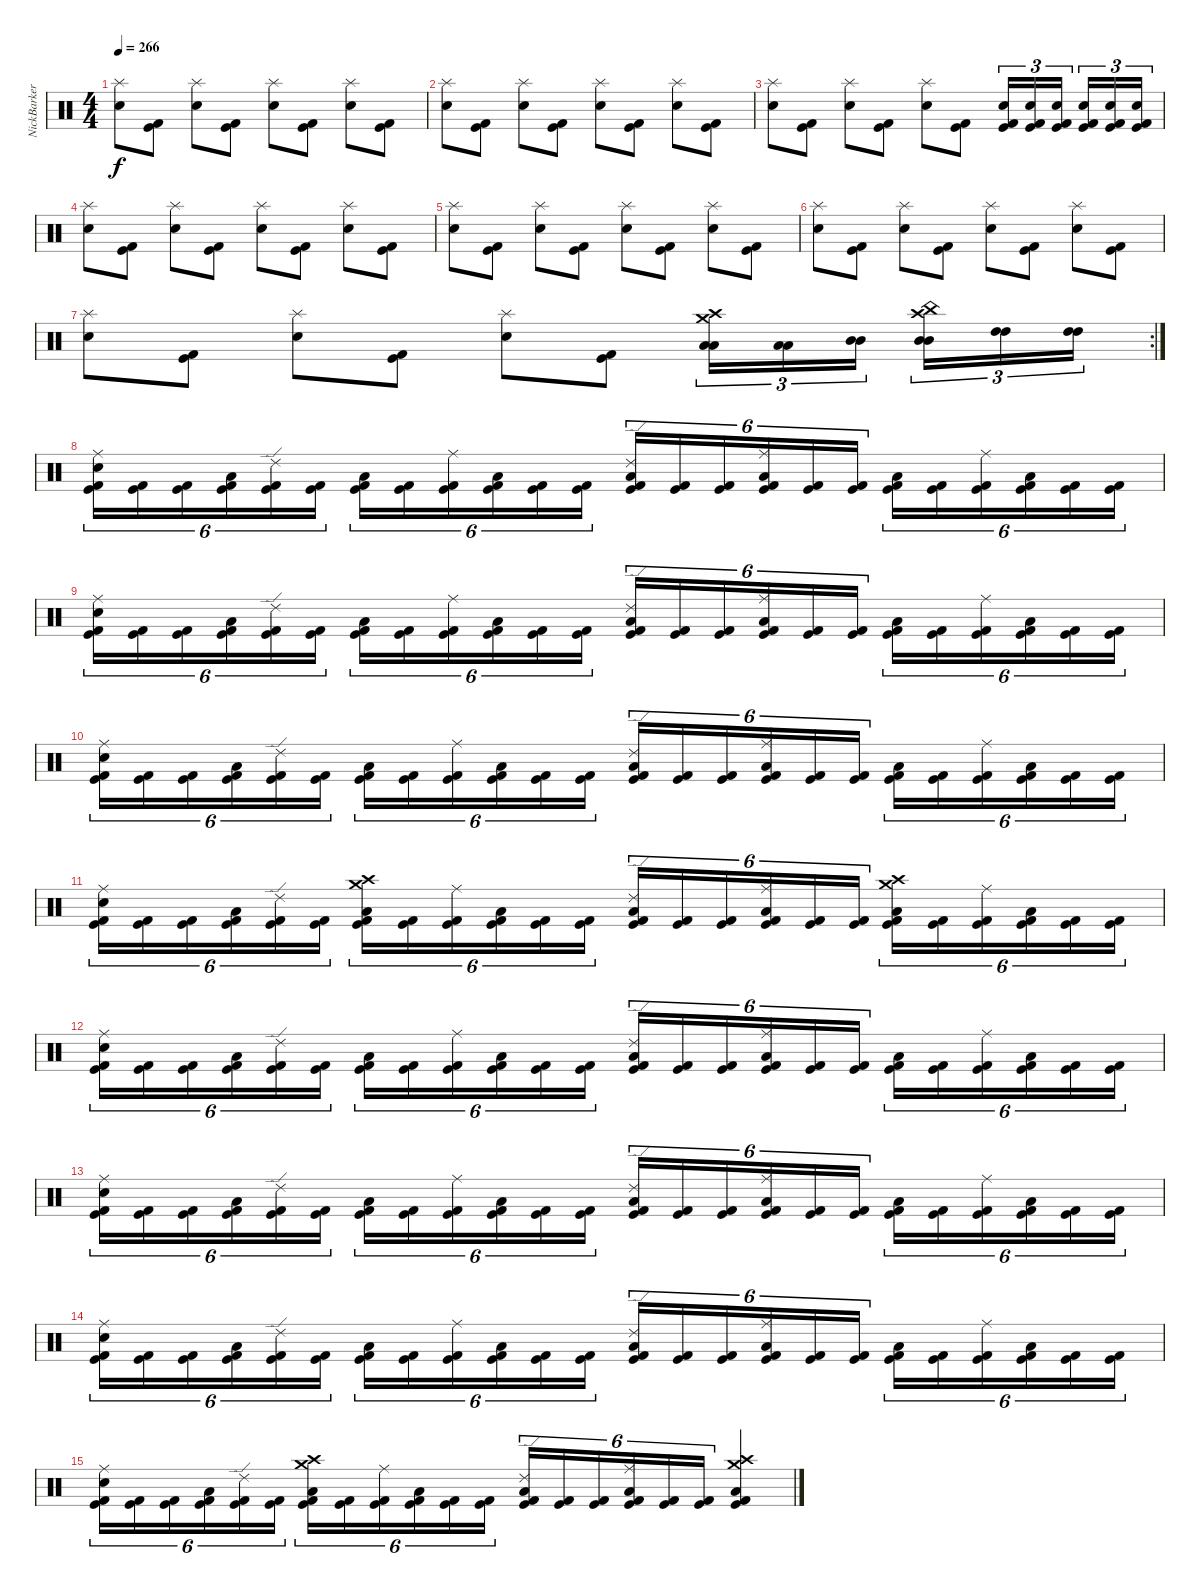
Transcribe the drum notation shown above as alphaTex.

\track ("NickBarker " "NickBarker") {instrument percussion}
\staff {score}
\articulation defaults
\ts (4 4)
\tempo 266
\clef neutral
\ks c
("Splash (hit)" "Electric Snare (hit)").8{dy f} ("Kick (hit)" "Kick (hit) 2").8 ("Splash (hit)" "Electric Snare (hit)").8 ("Kick (hit)" "Kick (hit) 2").8 ("Splash (hit)" "Electric Snare (hit)").8 ("Kick (hit)" "Kick (hit) 2").8 ("Splash (hit)" "Electric Snare (hit)").8 ("Kick (hit)" "Kick (hit) 2").8 |
("Splash (hit)" "Electric Snare (hit)").8 ("Kick (hit)" "Kick (hit) 2").8 ("Splash (hit)" "Electric Snare (hit)").8 ("Kick (hit)" "Kick (hit) 2").8 ("Splash (hit)" "Electric Snare (hit)").8 ("Kick (hit)" "Kick (hit) 2").8 ("Splash (hit)" "Electric Snare (hit)").8 ("Kick (hit)" "Kick (hit) 2").8 |
("Splash (hit)" "Electric Snare (hit)").8 ("Kick (hit)" "Kick (hit) 2").8 ("Splash (hit)" "Electric Snare (hit)").8 ("Kick (hit)" "Kick (hit) 2").8 ("Splash (hit)" "Electric Snare (hit)").8 ("Kick (hit)" "Kick (hit) 2").8 ("Kick (hit)" "Kick (hit) 2" "Electric Snare (hit)").16{tu (3 2)} ("Kick (hit)" "Kick (hit) 2" "Electric Snare (hit)").16{tu (3 2)} ("Kick (hit)" "Kick (hit) 2" "Electric Snare (hit)").16{tu (3 2)} ("Kick (hit)" "Kick (hit) 2" "Electric Snare (hit)").16{tu (3 2)} ("Kick (hit)" "Kick (hit) 2" "Electric Snare (hit)").16{tu (3 2)} ("Kick (hit)" "Kick (hit) 2" "Electric Snare (hit)").16{tu (3 2)} |
("Splash (hit)" "Electric Snare (hit)").8 ("Kick (hit)" "Kick (hit) 2").8 ("Splash (hit)" "Electric Snare (hit)").8 ("Kick (hit)" "Kick (hit) 2").8 ("Splash (hit)" "Electric Snare (hit)").8 ("Kick (hit)" "Kick (hit) 2").8 ("Splash (hit)" "Electric Snare (hit)").8 ("Kick (hit)" "Kick (hit) 2").8 |
("Splash (hit)" "Electric Snare (hit)").8 ("Kick (hit)" "Kick (hit) 2").8 ("Splash (hit)" "Electric Snare (hit)").8 ("Kick (hit)" "Kick (hit) 2").8 ("Splash (hit)" "Electric Snare (hit)").8 ("Kick (hit)" "Kick (hit) 2").8 ("Splash (hit)" "Electric Snare (hit)").8 ("Kick (hit)" "Kick (hit) 2").8 |
("Splash (hit)" "Electric Snare (hit)").8 ("Kick (hit)" "Kick (hit) 2").8 ("Splash (hit)" "Electric Snare (hit)").8 ("Kick (hit)" "Kick (hit) 2").8 ("Splash (hit)" "Electric Snare (hit)").8 ("Kick (hit)" "Kick (hit) 2").8 ("Splash (hit)" "Electric Snare (hit)").8 ("Kick (hit)" "Kick (hit) 2").8 |
\rc 2
("Splash (hit)" "Electric Snare (hit)").8 ("Kick (hit)" "Kick (hit) 2").8 ("Splash (hit)" "Electric Snare (hit)").8 ("Kick (hit)" "Kick (hit) 2").8 ("Splash (hit)" "Electric Snare (hit)").8 ("Kick (hit)" "Kick (hit) 2").8 ("Crash high (hit)" "Crash medium (hit)" "Low Tom (hit)" "Low Tom (hit)").16{tu (3 2)} ("Low Tom (hit)" "Low Tom (hit)").16{tu (3 2)} ("Mid Tom (hit)" "Mid Tom (hit)").16{tu (3 2)} ("Crash high (hit)" "China (hit)" "Mid Tom (hit)" "Mid Tom (hit)").16{tu (3 2)} ("High Tom (hit)" "High Tom (hit)").16{tu (3 2)} ("High Tom (hit)" "High Tom (hit)").16{tu (3 2)} |
("Kick (hit)" "Kick (hit) 2" "Ride (middle)" "Electric Snare (hit)").16{tu (6 4)} ("Kick (hit)" "Kick (hit) 2").16{tu (6 4)} ("Kick (hit)" "Kick (hit) 2").16{tu (6 4)} ("Kick (hit)" "Kick (hit) 2" "Low Floor Tom (hit)").16{tu (6 4)} ("Kick (hit)" "Kick (hit) 2" "Ride (edge) 2").16{tu (6 4)} ("Kick (hit)" "Kick (hit) 2").16{tu (6 4)} ("Kick (hit)" "Kick (hit) 2" "Low Floor Tom (hit)").16{tu (6 4)} ("Kick (hit)" "Kick (hit) 2").16{tu (6 4)} ("Kick (hit)" "Kick (hit) 2" "Ride (middle)").16{tu (6 4)} ("Kick (hit)" "Kick (hit) 2" "Low Floor Tom (hit)").16{tu (6 4)} ("Kick (hit)" "Kick (hit) 2").16{tu (6 4)} ("Kick (hit)" "Kick (hit) 2").16{tu (6 4)} ("Kick (hit)" "Kick (hit) 2" "Ride (edge) 2" "Low Floor Tom (hit)").16{tu (6 4)} ("Kick (hit)" "Kick (hit) 2").16{tu (6 4)} ("Kick (hit)" "Kick (hit) 2").16{tu (6 4)} ("Kick (hit)" "Kick (hit) 2" "Ride (middle)" "Low Floor Tom (hit)").16{tu (6 4)} ("Kick (hit)" "Kick (hit) 2").16{tu (6 4)} ("Kick (hit)" "Kick (hit) 2").16{tu (6 4)} ("Kick (hit)" "Kick (hit) 2" "Low Floor Tom (hit)").16{tu (6 4)} ("Kick (hit)" "Kick (hit) 2").16{tu (6 4)} ("Kick (hit)" "Kick (hit) 2" "Ride (middle)").16{tu (6 4)} ("Kick (hit)" "Kick (hit) 2" "Low Floor Tom (hit)").16{tu (6 4)} ("Kick (hit)" "Kick (hit) 2").16{tu (6 4)} ("Kick (hit)" "Kick (hit) 2").16{tu (6 4)} |
("Kick (hit)" "Kick (hit) 2" "Ride (middle)" "Electric Snare (hit)").16{tu (6 4)} ("Kick (hit)" "Kick (hit) 2").16{tu (6 4)} ("Kick (hit)" "Kick (hit) 2").16{tu (6 4)} ("Kick (hit)" "Kick (hit) 2" "Low Floor Tom (hit)").16{tu (6 4)} ("Kick (hit)" "Kick (hit) 2" "Ride (edge) 2").16{tu (6 4)} ("Kick (hit)" "Kick (hit) 2").16{tu (6 4)} ("Kick (hit)" "Kick (hit) 2" "Low Floor Tom (hit)").16{tu (6 4)} ("Kick (hit)" "Kick (hit) 2").16{tu (6 4)} ("Kick (hit)" "Kick (hit) 2" "Ride (middle)").16{tu (6 4)} ("Kick (hit)" "Kick (hit) 2" "Low Floor Tom (hit)").16{tu (6 4)} ("Kick (hit)" "Kick (hit) 2").16{tu (6 4)} ("Kick (hit)" "Kick (hit) 2").16{tu (6 4)} ("Kick (hit)" "Kick (hit) 2" "Ride (edge) 2" "Low Floor Tom (hit)").16{tu (6 4)} ("Kick (hit)" "Kick (hit) 2").16{tu (6 4)} ("Kick (hit)" "Kick (hit) 2").16{tu (6 4)} ("Kick (hit)" "Kick (hit) 2" "Ride (middle)" "Low Floor Tom (hit)").16{tu (6 4)} ("Kick (hit)" "Kick (hit) 2").16{tu (6 4)} ("Kick (hit)" "Kick (hit) 2").16{tu (6 4)} ("Kick (hit)" "Kick (hit) 2" "Low Floor Tom (hit)").16{tu (6 4)} ("Kick (hit)" "Kick (hit) 2").16{tu (6 4)} ("Kick (hit)" "Kick (hit) 2" "Ride (middle)").16{tu (6 4)} ("Kick (hit)" "Kick (hit) 2" "Low Floor Tom (hit)").16{tu (6 4)} ("Kick (hit)" "Kick (hit) 2").16{tu (6 4)} ("Kick (hit)" "Kick (hit) 2").16{tu (6 4)} |
("Kick (hit)" "Kick (hit) 2" "Ride (middle)" "Electric Snare (hit)").16{tu (6 4)} ("Kick (hit)" "Kick (hit) 2").16{tu (6 4)} ("Kick (hit)" "Kick (hit) 2").16{tu (6 4)} ("Kick (hit)" "Kick (hit) 2" "Low Floor Tom (hit)").16{tu (6 4)} ("Kick (hit)" "Kick (hit) 2" "Ride (edge) 2").16{tu (6 4)} ("Kick (hit)" "Kick (hit) 2").16{tu (6 4)} ("Kick (hit)" "Kick (hit) 2" "Low Floor Tom (hit)").16{tu (6 4)} ("Kick (hit)" "Kick (hit) 2").16{tu (6 4)} ("Kick (hit)" "Kick (hit) 2" "Ride (middle)").16{tu (6 4)} ("Kick (hit)" "Kick (hit) 2" "Low Floor Tom (hit)").16{tu (6 4)} ("Kick (hit)" "Kick (hit) 2").16{tu (6 4)} ("Kick (hit)" "Kick (hit) 2").16{tu (6 4)} ("Kick (hit)" "Kick (hit) 2" "Ride (edge) 2" "Low Floor Tom (hit)").16{tu (6 4)} ("Kick (hit)" "Kick (hit) 2").16{tu (6 4)} ("Kick (hit)" "Kick (hit) 2").16{tu (6 4)} ("Kick (hit)" "Kick (hit) 2" "Ride (middle)" "Low Floor Tom (hit)").16{tu (6 4)} ("Kick (hit)" "Kick (hit) 2").16{tu (6 4)} ("Kick (hit)" "Kick (hit) 2").16{tu (6 4)} ("Kick (hit)" "Kick (hit) 2" "Low Floor Tom (hit)").16{tu (6 4)} ("Kick (hit)" "Kick (hit) 2").16{tu (6 4)} ("Kick (hit)" "Kick (hit) 2" "Ride (middle)").16{tu (6 4)} ("Kick (hit)" "Kick (hit) 2" "Low Floor Tom (hit)").16{tu (6 4)} ("Kick (hit)" "Kick (hit) 2").16{tu (6 4)} ("Kick (hit)" "Kick (hit) 2").16{tu (6 4)} |
("Kick (hit)" "Kick (hit) 2" "Ride (middle)" "Electric Snare (hit)").16{tu (6 4)} ("Kick (hit)" "Kick (hit) 2").16{tu (6 4)} ("Kick (hit)" "Kick (hit) 2").16{tu (6 4)} ("Kick (hit)" "Kick (hit) 2" "Low Floor Tom (hit)").16{tu (6 4)} ("Kick (hit)" "Kick (hit) 2" "Ride (edge) 2").16{tu (6 4)} ("Kick (hit)" "Kick (hit) 2").16{tu (6 4)} ("Kick (hit)" "Kick (hit) 2" "Crash high (hit)" "Low Floor Tom (hit)" "Crash medium (hit)").16{tu (6 4)} ("Kick (hit)" "Kick (hit) 2").16{tu (6 4)} ("Kick (hit)" "Kick (hit) 2" "Ride (middle)").16{tu (6 4)} ("Kick (hit)" "Kick (hit) 2" "Low Floor Tom (hit)").16{tu (6 4)} ("Kick (hit)" "Kick (hit) 2").16{tu (6 4)} ("Kick (hit)" "Kick (hit) 2").16{tu (6 4)} ("Kick (hit)" "Kick (hit) 2" "Ride (edge) 2" "Low Floor Tom (hit)").16{tu (6 4)} ("Kick (hit)" "Kick (hit) 2").16{tu (6 4)} ("Kick (hit)" "Kick (hit) 2").16{tu (6 4)} ("Kick (hit)" "Kick (hit) 2" "Ride (middle)" "Low Floor Tom (hit)").16{tu (6 4)} ("Kick (hit)" "Kick (hit) 2").16{tu (6 4)} ("Kick (hit)" "Kick (hit) 2").16{tu (6 4)} ("Kick (hit)" "Kick (hit) 2" "Crash high (hit)" "Low Floor Tom (hit)" "Crash medium (hit)").16{tu (6 4)} ("Kick (hit)" "Kick (hit) 2").16{tu (6 4)} ("Kick (hit)" "Kick (hit) 2" "Ride (middle)").16{tu (6 4)} ("Kick (hit)" "Kick (hit) 2" "Low Floor Tom (hit)").16{tu (6 4)} ("Kick (hit)" "Kick (hit) 2").16{tu (6 4)} ("Kick (hit)" "Kick (hit) 2").16{tu (6 4)} |
("Kick (hit)" "Kick (hit) 2" "Ride (middle)" "Electric Snare (hit)").16{tu (6 4)} ("Kick (hit)" "Kick (hit) 2").16{tu (6 4)} ("Kick (hit)" "Kick (hit) 2").16{tu (6 4)} ("Kick (hit)" "Kick (hit) 2" "Low Floor Tom (hit)").16{tu (6 4)} ("Kick (hit)" "Kick (hit) 2" "Ride (edge) 2").16{tu (6 4)} ("Kick (hit)" "Kick (hit) 2").16{tu (6 4)} ("Kick (hit)" "Kick (hit) 2" "Low Floor Tom (hit)").16{tu (6 4)} ("Kick (hit)" "Kick (hit) 2").16{tu (6 4)} ("Kick (hit)" "Kick (hit) 2" "Ride (middle)").16{tu (6 4)} ("Kick (hit)" "Kick (hit) 2" "Low Floor Tom (hit)").16{tu (6 4)} ("Kick (hit)" "Kick (hit) 2").16{tu (6 4)} ("Kick (hit)" "Kick (hit) 2").16{tu (6 4)} ("Kick (hit)" "Kick (hit) 2" "Ride (edge) 2" "Low Floor Tom (hit)").16{tu (6 4)} ("Kick (hit)" "Kick (hit) 2").16{tu (6 4)} ("Kick (hit)" "Kick (hit) 2").16{tu (6 4)} ("Kick (hit)" "Kick (hit) 2" "Ride (middle)" "Low Floor Tom (hit)").16{tu (6 4)} ("Kick (hit)" "Kick (hit) 2").16{tu (6 4)} ("Kick (hit)" "Kick (hit) 2").16{tu (6 4)} ("Kick (hit)" "Kick (hit) 2" "Low Floor Tom (hit)").16{tu (6 4)} ("Kick (hit)" "Kick (hit) 2").16{tu (6 4)} ("Kick (hit)" "Kick (hit) 2" "Ride (middle)").16{tu (6 4)} ("Kick (hit)" "Kick (hit) 2" "Low Floor Tom (hit)").16{tu (6 4)} ("Kick (hit)" "Kick (hit) 2").16{tu (6 4)} ("Kick (hit)" "Kick (hit) 2").16{tu (6 4)} |
("Kick (hit)" "Kick (hit) 2" "Ride (middle)" "Electric Snare (hit)").16{tu (6 4)} ("Kick (hit)" "Kick (hit) 2").16{tu (6 4)} ("Kick (hit)" "Kick (hit) 2").16{tu (6 4)} ("Kick (hit)" "Kick (hit) 2" "Low Floor Tom (hit)").16{tu (6 4)} ("Kick (hit)" "Kick (hit) 2" "Ride (edge) 2").16{tu (6 4)} ("Kick (hit)" "Kick (hit) 2").16{tu (6 4)} ("Kick (hit)" "Kick (hit) 2" "Low Floor Tom (hit)").16{tu (6 4)} ("Kick (hit)" "Kick (hit) 2").16{tu (6 4)} ("Kick (hit)" "Kick (hit) 2" "Ride (middle)").16{tu (6 4)} ("Kick (hit)" "Kick (hit) 2" "Low Floor Tom (hit)").16{tu (6 4)} ("Kick (hit)" "Kick (hit) 2").16{tu (6 4)} ("Kick (hit)" "Kick (hit) 2").16{tu (6 4)} ("Kick (hit)" "Kick (hit) 2" "Ride (edge) 2" "Low Floor Tom (hit)").16{tu (6 4)} ("Kick (hit)" "Kick (hit) 2").16{tu (6 4)} ("Kick (hit)" "Kick (hit) 2").16{tu (6 4)} ("Kick (hit)" "Kick (hit) 2" "Ride (middle)" "Low Floor Tom (hit)").16{tu (6 4)} ("Kick (hit)" "Kick (hit) 2").16{tu (6 4)} ("Kick (hit)" "Kick (hit) 2").16{tu (6 4)} ("Kick (hit)" "Kick (hit) 2" "Low Floor Tom (hit)").16{tu (6 4)} ("Kick (hit)" "Kick (hit) 2").16{tu (6 4)} ("Kick (hit)" "Kick (hit) 2" "Ride (middle)").16{tu (6 4)} ("Kick (hit)" "Kick (hit) 2" "Low Floor Tom (hit)").16{tu (6 4)} ("Kick (hit)" "Kick (hit) 2").16{tu (6 4)} ("Kick (hit)" "Kick (hit) 2").16{tu (6 4)} |
("Kick (hit)" "Kick (hit) 2" "Ride (middle)" "Electric Snare (hit)").16{tu (6 4)} ("Kick (hit)" "Kick (hit) 2").16{tu (6 4)} ("Kick (hit)" "Kick (hit) 2").16{tu (6 4)} ("Kick (hit)" "Kick (hit) 2" "Low Floor Tom (hit)").16{tu (6 4)} ("Kick (hit)" "Kick (hit) 2" "Ride (edge) 2").16{tu (6 4)} ("Kick (hit)" "Kick (hit) 2").16{tu (6 4)} ("Kick (hit)" "Kick (hit) 2" "Low Floor Tom (hit)").16{tu (6 4)} ("Kick (hit)" "Kick (hit) 2").16{tu (6 4)} ("Kick (hit)" "Kick (hit) 2" "Ride (middle)").16{tu (6 4)} ("Kick (hit)" "Kick (hit) 2" "Low Floor Tom (hit)").16{tu (6 4)} ("Kick (hit)" "Kick (hit) 2").16{tu (6 4)} ("Kick (hit)" "Kick (hit) 2").16{tu (6 4)} ("Kick (hit)" "Kick (hit) 2" "Ride (edge) 2" "Low Floor Tom (hit)").16{tu (6 4)} ("Kick (hit)" "Kick (hit) 2").16{tu (6 4)} ("Kick (hit)" "Kick (hit) 2").16{tu (6 4)} ("Kick (hit)" "Kick (hit) 2" "Ride (middle)" "Low Floor Tom (hit)").16{tu (6 4)} ("Kick (hit)" "Kick (hit) 2").16{tu (6 4)} ("Kick (hit)" "Kick (hit) 2").16{tu (6 4)} ("Kick (hit)" "Kick (hit) 2" "Low Floor Tom (hit)").16{tu (6 4)} ("Kick (hit)" "Kick (hit) 2").16{tu (6 4)} ("Kick (hit)" "Kick (hit) 2" "Ride (middle)").16{tu (6 4)} ("Kick (hit)" "Kick (hit) 2" "Low Floor Tom (hit)").16{tu (6 4)} ("Kick (hit)" "Kick (hit) 2").16{tu (6 4)} ("Kick (hit)" "Kick (hit) 2").16{tu (6 4)} |
("Kick (hit)" "Kick (hit) 2" "Ride (middle)" "Electric Snare (hit)").16{tu (6 4)} ("Kick (hit)" "Kick (hit) 2").16{tu (6 4)} ("Kick (hit)" "Kick (hit) 2").16{tu (6 4)} ("Kick (hit)" "Kick (hit) 2" "Low Floor Tom (hit)").16{tu (6 4)} ("Kick (hit)" "Kick (hit) 2" "Ride (edge) 2").16{tu (6 4)} ("Kick (hit)" "Kick (hit) 2").16{tu (6 4)} ("Kick (hit)" "Kick (hit) 2" "Crash high (hit)" "Low Floor Tom (hit)" "Crash medium (hit)").16{tu (6 4)} ("Kick (hit)" "Kick (hit) 2").16{tu (6 4)} ("Kick (hit)" "Kick (hit) 2" "Ride (middle)").16{tu (6 4)} ("Kick (hit)" "Kick (hit) 2" "Low Floor Tom (hit)").16{tu (6 4)} ("Kick (hit)" "Kick (hit) 2").16{tu (6 4)} ("Kick (hit)" "Kick (hit) 2").16{tu (6 4)} ("Kick (hit)" "Kick (hit) 2" "Ride (edge) 2" "Low Floor Tom (hit)").16{tu (6 4)} ("Kick (hit)" "Kick (hit) 2").16{tu (6 4)} ("Kick (hit)" "Kick (hit) 2").16{tu (6 4)} ("Kick (hit)" "Kick (hit) 2" "Ride (middle)" "Low Floor Tom (hit)").16{tu (6 4)} ("Kick (hit)" "Kick (hit) 2").16{tu (6 4)} ("Kick (hit)" "Kick (hit) 2").16{tu (6 4)} ("Kick (hit)" "Kick (hit) 2" "Crash high (hit)" "Low Floor Tom (hit)" "Crash medium (hit)").4
